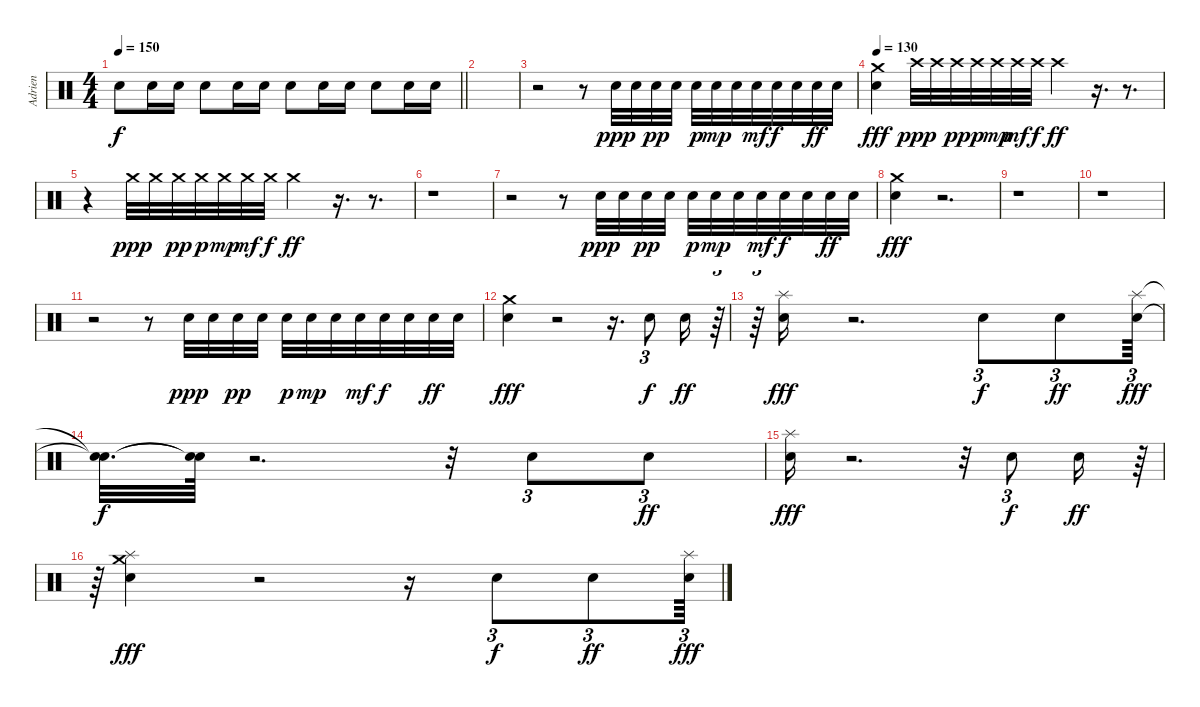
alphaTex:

\track ("Adrien" "Adrien") {instrument percussion}
\staff {score}
\articulation defaults
\ts (4 4)
\tempo 150
\clef neutral
\barLineRight lightlight
\ks c "Snare (hit) 2".8{dy f} "Electric Snare (hit)".16 "Electric Snare (hit)".16 "Snare (hit) 2".8 "Electric Snare (hit)".16 "Electric Snare (hit)".16 "Snare (hit) 2".8 "Electric Snare (hit)".16 "Electric Snare (hit)".16 "Snare (hit) 2".8 "Electric Snare (hit)".16 "Electric Snare (hit)".16
|
|
r.2 r.8 "Snare (hit) 2".32{dy ppp} "Snare (hit) 2".32 "Snare (hit) 2".32{dy pp} "Snare (hit) 2".32 "Snare (hit) 2".32{dy p} "Snare (hit) 2".32{dy mp} "Snare (hit) 2".32 "Snare (hit) 2".32{dy mf} "Snare (hit) 2".32{dy f} "Snare (hit) 2".32 "Snare (hit) 2".32{dy ff} "Snare (hit) 2".32 |
\tempo 130
("Snare (hit) 2" "Crash medium (hit)").4{dy fff} "Crash high (hit)".32{dy ppp} "Crash high (hit)".32 "Crash high (hit)".32{dy pp} "Crash high (hit)".32{dy p} "Crash high (hit)".32{dy mp} "Crash high (hit)".32{dy mf} "Crash high (hit)".32{dy f} "Crash high (hit)".4{dy ff} r.16{d} r.8{d} |
r.4 "Crash medium (hit)".32{dy ppp} "Crash medium (hit)".32 "Crash medium (hit)".32{dy pp} "Crash medium (hit)".32{dy p} "Crash medium (hit)".32{dy mp} "Crash medium (hit)".32{dy mf} "Crash medium (hit)".32{dy f} "Crash medium (hit)".4{dy ff} r.16{d} r.8{d} |
r.1 |
r.2 r.8 "Snare (hit) 2".32{dy ppp} "Snare (hit) 2".32 "Snare (hit) 2".32{dy pp} "Snare (hit) 2".32 "Snare (hit) 2".32{dy p} "Snare (hit) 2".32{dy mp} "Snare (hit) 2".32 "Snare (hit) 2".32{dy mf} "Snare (hit) 2".32{dy f} "Snare (hit) 2".32 "Snare (hit) 2".32{dy ff} "Snare (hit) 2".32 |
("Crash medium (hit)" "Snare (hit) 2").4{dy fff} r.2{d} |
r.1 |
r.1 |
r.2 r.8 "Snare (hit) 2".32{dy ppp} "Snare (hit) 2".32 "Snare (hit) 2".32{dy pp} "Snare (hit) 2".32 "Snare (hit) 2".32{dy p} "Snare (hit) 2".32{dy mp} "Snare (hit) 2".32 "Snare (hit) 2".32{dy mf} "Snare (hit) 2".32{dy f} "Snare (hit) 2".32 "Snare (hit) 2".32{dy ff} "Snare (hit) 2".32 |
("Crash medium (hit)" "Snare (hit) 2").4{dy fff} r.2 r.16{d} "Snare (hit) 2".8{tu (3 2) dy f} "Snare (hit) 2".16{dy ff} r.64{tu (3 2)} |
r.64{tu (3 2)} ("Snare (hit) 2" "Splash (hit)").16{dy fff} r.2{d} "Snare (hit) 2".8{tu (3 2) dy f} "Snare (hit) 2".8{tu (3 2) dy ff} ("Snare (hit) 2" "Splash (hit)").64{tu (3 2) dy fff} |
("Snare (hit)"{t} "Snare (hit)"{t}).32{d dy f} ("Snare (hit)"{t} "Snare (hit)"{t}).64 r.2{d} r.32 "Snare (hit) 2".8{tu (3 2)} "Snare (hit) 2".8{tu (3 2) dy ff} |
("Snare (hit) 2" "Splash (hit)").16{dy fff} r.2{d} r.32 "Snare (hit) 2".8{tu (3 2) dy f} "Snare (hit) 2".16{dy ff} r.64{tu (3 2)} |
r.64{tu (3 2)} ("Crash medium (hit)" "Snare (hit) 2" "Splash (hit)").4{dy fff} r.2 r.16 "Snare (hit) 2".8{tu (3 2) dy f} "Snare (hit) 2".8{tu (3 2) dy ff} ("Snare (hit) 2" "Splash (hit)").64{tu (3 2) dy fff}
